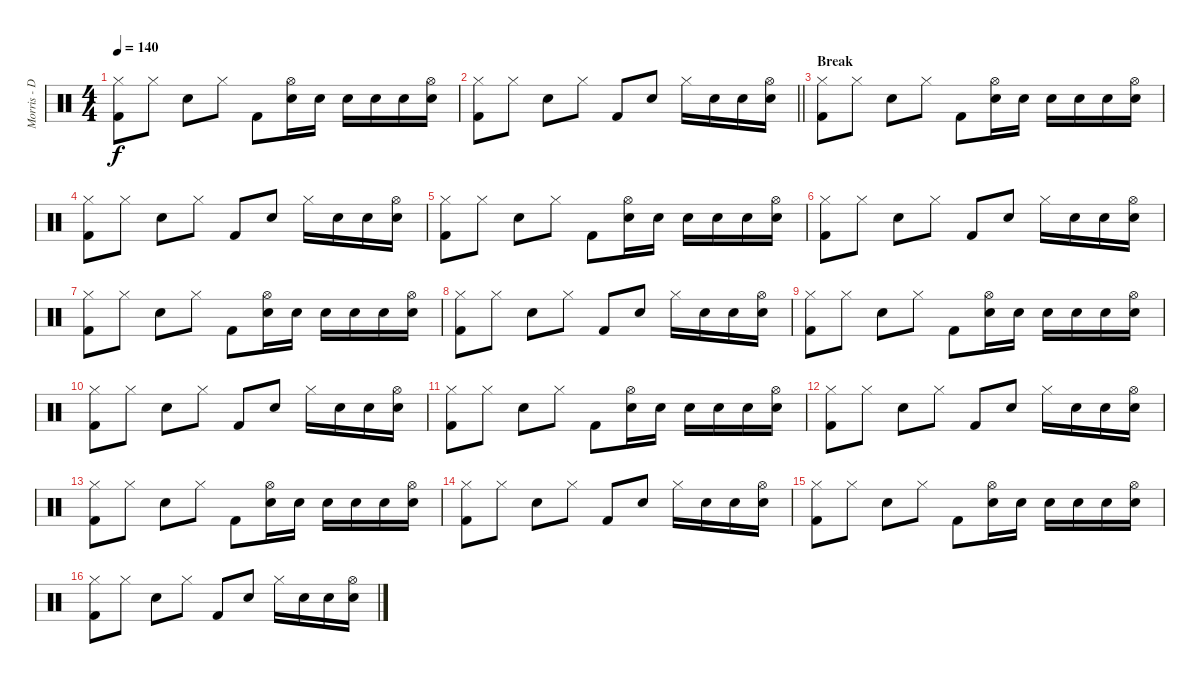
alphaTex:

\track ("Morris - Drums" "Morris - D") {instrument percussion}
\staff {score}
\articulation defaults
\ts (4 4)
\tempo 140
\clef neutral
\ks c
("Kick (hit) 2" "Hi-Hat (closed)").8{dy f} "Hi-Hat (closed)".8 "Snare (hit) 2".8 "Hi-Hat (closed)".8 "Kick (hit) 2".8 ("Snare (hit) 2" "Hi-Hat (open)").16 "Snare (hit) 2".16 "Snare (hit) 2".16 "Snare (hit) 2".16 "Snare (hit) 2".16 ("Snare (hit) 2" "Hi-Hat (open)").16 |
\barLineRight lightlight
("Kick (hit) 2" "Hi-Hat (closed)").8 "Hi-Hat (closed)".8 "Snare (hit) 2".8 "Hi-Hat (closed)".8 "Kick (hit) 2".8 "Snare (hit) 2".8 "Hi-Hat (closed)".16 "Snare (hit) 2".16 "Snare (hit) 2".16 ("Snare (hit) 2" "Hi-Hat (open)").16 |
\section ("" "Break")
("Kick (hit) 2" "Hi-Hat (closed)").8 "Hi-Hat (closed)".8 "Snare (hit) 2".8 "Hi-Hat (closed)".8 "Kick (hit) 2".8 ("Snare (hit) 2" "Hi-Hat (open)").16 "Snare (hit) 2".16 "Snare (hit) 2".16 "Snare (hit) 2".16 "Snare (hit) 2".16 ("Snare (hit) 2" "Hi-Hat (open)").16 |
("Kick (hit) 2" "Hi-Hat (closed)").8 "Hi-Hat (closed)".8 "Snare (hit) 2".8 "Hi-Hat (closed)".8 "Kick (hit) 2".8 "Snare (hit) 2".8 "Hi-Hat (closed)".16 "Snare (hit) 2".16 "Snare (hit) 2".16 ("Snare (hit) 2" "Hi-Hat (open)").16 |
("Kick (hit) 2" "Hi-Hat (closed)").8 "Hi-Hat (closed)".8 "Snare (hit) 2".8 "Hi-Hat (closed)".8 "Kick (hit) 2".8 ("Snare (hit) 2" "Hi-Hat (open)").16 "Snare (hit) 2".16 "Snare (hit) 2".16 "Snare (hit) 2".16 "Snare (hit) 2".16 ("Snare (hit) 2" "Hi-Hat (open)").16 |
("Kick (hit) 2" "Hi-Hat (closed)").8 "Hi-Hat (closed)".8 "Snare (hit) 2".8 "Hi-Hat (closed)".8 "Kick (hit) 2".8 "Snare (hit) 2".8 "Hi-Hat (closed)".16 "Snare (hit) 2".16 "Snare (hit) 2".16 ("Snare (hit) 2" "Hi-Hat (open)").16 |
("Kick (hit) 2" "Hi-Hat (closed)").8 "Hi-Hat (closed)".8 "Snare (hit) 2".8 "Hi-Hat (closed)".8 "Kick (hit) 2".8 ("Snare (hit) 2" "Hi-Hat (open)").16 "Snare (hit) 2".16 "Snare (hit) 2".16 "Snare (hit) 2".16 "Snare (hit) 2".16 ("Snare (hit) 2" "Hi-Hat (open)").16 |
("Kick (hit) 2" "Hi-Hat (closed)").8 "Hi-Hat (closed)".8 "Snare (hit) 2".8 "Hi-Hat (closed)".8 "Kick (hit) 2".8 "Snare (hit) 2".8 "Hi-Hat (closed)".16 "Snare (hit) 2".16 "Snare (hit) 2".16 ("Snare (hit) 2" "Hi-Hat (open)").16 |
("Kick (hit) 2" "Hi-Hat (closed)").8 "Hi-Hat (closed)".8 "Snare (hit) 2".8 "Hi-Hat (closed)".8 "Kick (hit) 2".8 ("Snare (hit) 2" "Hi-Hat (open)").16 "Snare (hit) 2".16 "Snare (hit) 2".16 "Snare (hit) 2".16 "Snare (hit) 2".16 ("Snare (hit) 2" "Hi-Hat (open)").16 |
("Kick (hit) 2" "Hi-Hat (closed)").8 "Hi-Hat (closed)".8 "Snare (hit) 2".8 "Hi-Hat (closed)".8 "Kick (hit) 2".8 "Snare (hit) 2".8 "Hi-Hat (closed)".16 "Snare (hit) 2".16 "Snare (hit) 2".16 ("Snare (hit) 2" "Hi-Hat (open)").16 |
("Kick (hit) 2" "Hi-Hat (closed)").8 "Hi-Hat (closed)".8 "Snare (hit) 2".8 "Hi-Hat (closed)".8 "Kick (hit) 2".8 ("Snare (hit) 2" "Hi-Hat (open)").16 "Snare (hit) 2".16 "Snare (hit) 2".16 "Snare (hit) 2".16 "Snare (hit) 2".16 ("Snare (hit) 2" "Hi-Hat (open)").16 |
("Kick (hit) 2" "Hi-Hat (closed)").8 "Hi-Hat (closed)".8 "Snare (hit) 2".8 "Hi-Hat (closed)".8 "Kick (hit) 2".8 "Snare (hit) 2".8 "Hi-Hat (closed)".16 "Snare (hit) 2".16 "Snare (hit) 2".16 ("Snare (hit) 2" "Hi-Hat (open)").16 |
("Kick (hit) 2" "Hi-Hat (closed)").8 "Hi-Hat (closed)".8 "Snare (hit) 2".8 "Hi-Hat (closed)".8 "Kick (hit) 2".8 ("Snare (hit) 2" "Hi-Hat (open)").16 "Snare (hit) 2".16 "Snare (hit) 2".16 "Snare (hit) 2".16 "Snare (hit) 2".16 ("Snare (hit) 2" "Hi-Hat (open)").16 |
("Kick (hit) 2" "Hi-Hat (closed)").8 "Hi-Hat (closed)".8 "Snare (hit) 2".8 "Hi-Hat (closed)".8 "Kick (hit) 2".8 "Snare (hit) 2".8 "Hi-Hat (closed)".16 "Snare (hit) 2".16 "Snare (hit) 2".16 ("Snare (hit) 2" "Hi-Hat (open)").16 |
("Kick (hit) 2" "Hi-Hat (closed)").8 "Hi-Hat (closed)".8 "Snare (hit) 2".8 "Hi-Hat (closed)".8 "Kick (hit) 2".8 ("Snare (hit) 2" "Hi-Hat (open)").16 "Snare (hit) 2".16 "Snare (hit) 2".16 "Snare (hit) 2".16 "Snare (hit) 2".16 ("Snare (hit) 2" "Hi-Hat (open)").16 |
("Kick (hit) 2" "Hi-Hat (closed)").8 "Hi-Hat (closed)".8 "Snare (hit) 2".8 "Hi-Hat (closed)".8 "Kick (hit) 2".8 "Snare (hit) 2".8 "Hi-Hat (closed)".16 "Snare (hit) 2".16 "Snare (hit) 2".16 ("Snare (hit) 2" "Hi-Hat (open)").16
